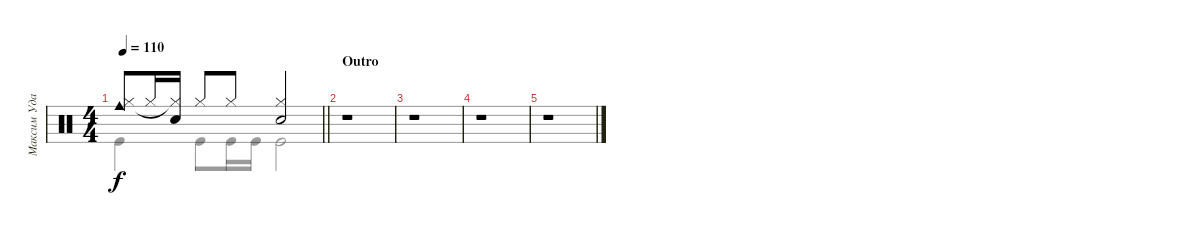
\track ("Максим Удалов" "Максим Уда") {instrument percussion}
\staff {score}
\articulation defaults
\voice
\ts (4 4)
\tempo 110
\clef neutral
\barLineRight lightlight
\ks c
("Hi-Hat (closed)" "Cowbell medium (hit)").8{dy f} "Hi-Hat (closed)".16 ("Snare (hit) 2" "Hi-Hat (closed)"{t}).16 "Hi-Hat (closed)".8 "Hi-Hat (closed)".8 ("Hi-Hat (closed)" "Snare (hit) 2").2 |
\section ("" "Outro")
r.1 |
r.1 |
r.1 |
r.1
\voice
\clef neutral
\ottava regular
\simile none
\barLineRight lightlight
\ks c "Kick (hit)".4{dy f} "Kick (hit)".8 "Kick (hit)".16 "Kick (hit)".16 "Kick (hit)".2
|
|
|
|
